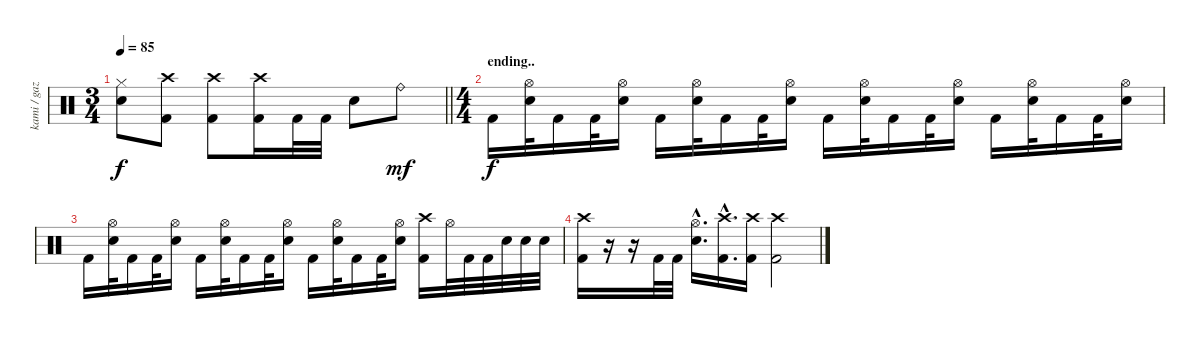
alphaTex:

\track ("kami / gaz (?)" "kami / gaz") {instrument percussion}
\staff {score}
\articulation defaults
\ts (3 4)
\tempo 85
\clef neutral
\barLineRight lightlight
\ks c
("Electric Snare (hit)" "Hi-Hat (closed)").8{dy f} ("Kick (hit) 2" "Crash high (hit)").8 ("Kick (hit) 2" "Crash high (hit)").8 ("Kick (hit) 2" "Crash high (hit)").16 "Kick (hit) 2".32 "Kick (hit) 2".32 "Electric Snare (hit)".8 "Ride (bell)".8{dy mf} |
\ts (4 4)
\section ("" "ending..")
"Kick (hit) 2".16{dy f} ("Electric Snare (hit)" "Hi-Hat (open)").32 "Kick (hit) 2".16 "Kick (hit) 2".32 ("Electric Snare (hit)" "Hi-Hat (open)").16 "Kick (hit) 2".16 ("Electric Snare (hit)" "Hi-Hat (open)").32 "Kick (hit) 2".16 "Kick (hit) 2".32 ("Electric Snare (hit)" "Hi-Hat (open)").16 "Kick (hit) 2".16 ("Electric Snare (hit)" "Hi-Hat (open)").32 "Kick (hit) 2".16 "Kick (hit) 2".32 ("Electric Snare (hit)" "Hi-Hat (open)").16 "Kick (hit) 2".16 ("Electric Snare (hit)" "Hi-Hat (open)").32 "Kick (hit) 2".16 "Kick (hit) 2".32 ("Electric Snare (hit)" "Hi-Hat (open)").16 |
"Kick (hit) 2".16 ("Electric Snare (hit)" "Hi-Hat (open)").32 "Kick (hit) 2".16 "Kick (hit) 2".32 ("Electric Snare (hit)" "Hi-Hat (open)").16 "Kick (hit) 2".16 ("Electric Snare (hit)" "Hi-Hat (open)").32 "Kick (hit) 2".16 "Kick (hit) 2".32 ("Electric Snare (hit)" "Hi-Hat (open)").16 "Kick (hit) 2".16 ("Electric Snare (hit)" "Hi-Hat (open)").32 "Kick (hit) 2".16 "Kick (hit) 2".32 ("Electric Snare (hit)" "Hi-Hat (open)").16 ("Kick (hit) 2" "Crash high (hit)").16 "Hi-Hat (open)".32 "Kick (hit) 2".32 "Kick (hit) 2".32 "Electric Snare (hit)".32 "Electric Snare (hit)".32 "Electric Snare (hit)".32 |
("Kick (hit) 2" "Crash high (hit)").16 r.16 r.16 "Kick (hit) 2".32 "Kick (hit) 2".32 ("Electric Snare (hit)"{hac} "Hi-Hat (open)"{hac}).16{d} ("Kick (hit) 2"{hac} "Crash high (hit)"{hac}).16{d} ("Kick (hit) 2" "Crash high (hit)").16 ("Kick (hit) 2" "Crash high (hit)").2
